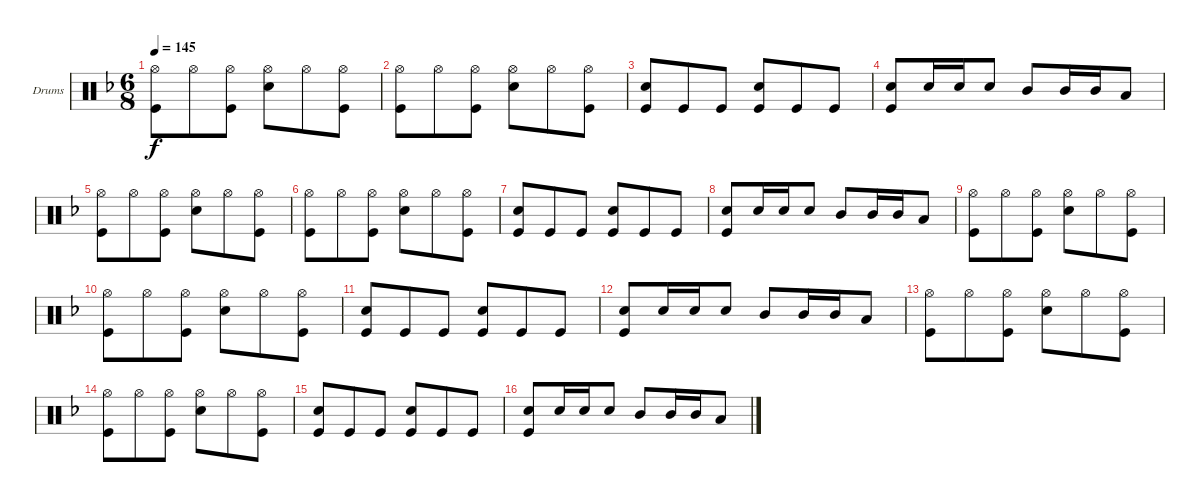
\bracketExtendMode groupsimilarinstruments
\firstSystemTrackNameOrientation horizontal
\otherSystemsTrackNameOrientation horizontal
\track ("Drumkit" "Drums") {instrument percussion}
\staff {score}
\articulation defaults
\ts (6 8)
\tempo 145
\clef neutral
\ks f
("Hi-Hat (open)" "Kick (hit)").8{dy f} "Hi-Hat (open)".8 ("Hi-Hat (open)" "Kick (hit)").8 ("Hi-Hat (open)" "Snare (hit) 2").8 "Hi-Hat (open)".8 ("Hi-Hat (open)" "Kick (hit)").8 |
("Hi-Hat (open)" "Kick (hit)").8 "Hi-Hat (open)".8 ("Hi-Hat (open)" "Kick (hit)").8 ("Hi-Hat (open)" "Snare (hit) 2").8 "Hi-Hat (open)".8 ("Hi-Hat (open)" "Kick (hit)").8 |
("Kick (hit)" "Snare (hit) 2").8 "Kick (hit)".8 "Kick (hit)".8 ("Snare (hit) 2" "Kick (hit)").8 "Kick (hit)".8 "Kick (hit)".8 |
("Snare (hit) 2" "Kick (hit)").8 "Snare (hit) 2".16 "Snare (hit) 2".16 "Snare (hit) 2".8 "Mid Tom (hit)".8 "Mid Tom (hit)".16 "Mid Tom (hit)".16 "Low Tom (hit)".8 |
("Hi-Hat (open)" "Kick (hit)").8 "Hi-Hat (open)".8 ("Hi-Hat (open)" "Kick (hit)").8 ("Hi-Hat (open)" "Snare (hit) 2").8 "Hi-Hat (open)".8 ("Hi-Hat (open)" "Kick (hit)").8 |
("Hi-Hat (open)" "Kick (hit)").8 "Hi-Hat (open)".8 ("Hi-Hat (open)" "Kick (hit)").8 ("Hi-Hat (open)" "Snare (hit) 2").8 "Hi-Hat (open)".8 ("Hi-Hat (open)" "Kick (hit)").8 |
("Kick (hit)" "Snare (hit) 2").8 "Kick (hit)".8 "Kick (hit)".8 ("Snare (hit) 2" "Kick (hit)").8 "Kick (hit)".8 "Kick (hit)".8 |
("Snare (hit) 2" "Kick (hit)").8 "Snare (hit) 2".16 "Snare (hit) 2".16 "Snare (hit) 2".8 "Mid Tom (hit)".8 "Mid Tom (hit)".16 "Mid Tom (hit)".16 "Low Tom (hit)".8 |
("Hi-Hat (open)" "Kick (hit)").8 "Hi-Hat (open)".8 ("Hi-Hat (open)" "Kick (hit)").8 ("Hi-Hat (open)" "Snare (hit) 2").8 "Hi-Hat (open)".8 ("Hi-Hat (open)" "Kick (hit)").8 |
("Hi-Hat (open)" "Kick (hit)").8 "Hi-Hat (open)".8 ("Hi-Hat (open)" "Kick (hit)").8 ("Hi-Hat (open)" "Snare (hit) 2").8 "Hi-Hat (open)".8 ("Hi-Hat (open)" "Kick (hit)").8 |
("Kick (hit)" "Snare (hit) 2").8 "Kick (hit)".8 "Kick (hit)".8 ("Snare (hit) 2" "Kick (hit)").8 "Kick (hit)".8 "Kick (hit)".8 |
("Snare (hit) 2" "Kick (hit)").8 "Snare (hit) 2".16 "Snare (hit) 2".16 "Snare (hit) 2".8 "Mid Tom (hit)".8 "Mid Tom (hit)".16 "Mid Tom (hit)".16 "Low Tom (hit)".8 |
("Hi-Hat (open)" "Kick (hit)").8 "Hi-Hat (open)".8 ("Hi-Hat (open)" "Kick (hit)").8 ("Hi-Hat (open)" "Snare (hit) 2").8 "Hi-Hat (open)".8 ("Hi-Hat (open)" "Kick (hit)").8 |
("Hi-Hat (open)" "Kick (hit)").8 "Hi-Hat (open)".8 ("Hi-Hat (open)" "Kick (hit)").8 ("Hi-Hat (open)" "Snare (hit) 2").8 "Hi-Hat (open)".8 ("Hi-Hat (open)" "Kick (hit)").8 |
("Kick (hit)" "Snare (hit) 2").8 "Kick (hit)".8 "Kick (hit)".8 ("Snare (hit) 2" "Kick (hit)").8 "Kick (hit)".8 "Kick (hit)".8 |
("Snare (hit) 2" "Kick (hit)").8 "Snare (hit) 2".16 "Snare (hit) 2".16 "Snare (hit) 2".8 "Mid Tom (hit)".8 "Mid Tom (hit)".16 "Mid Tom (hit)".16 "Low Tom (hit)".8
